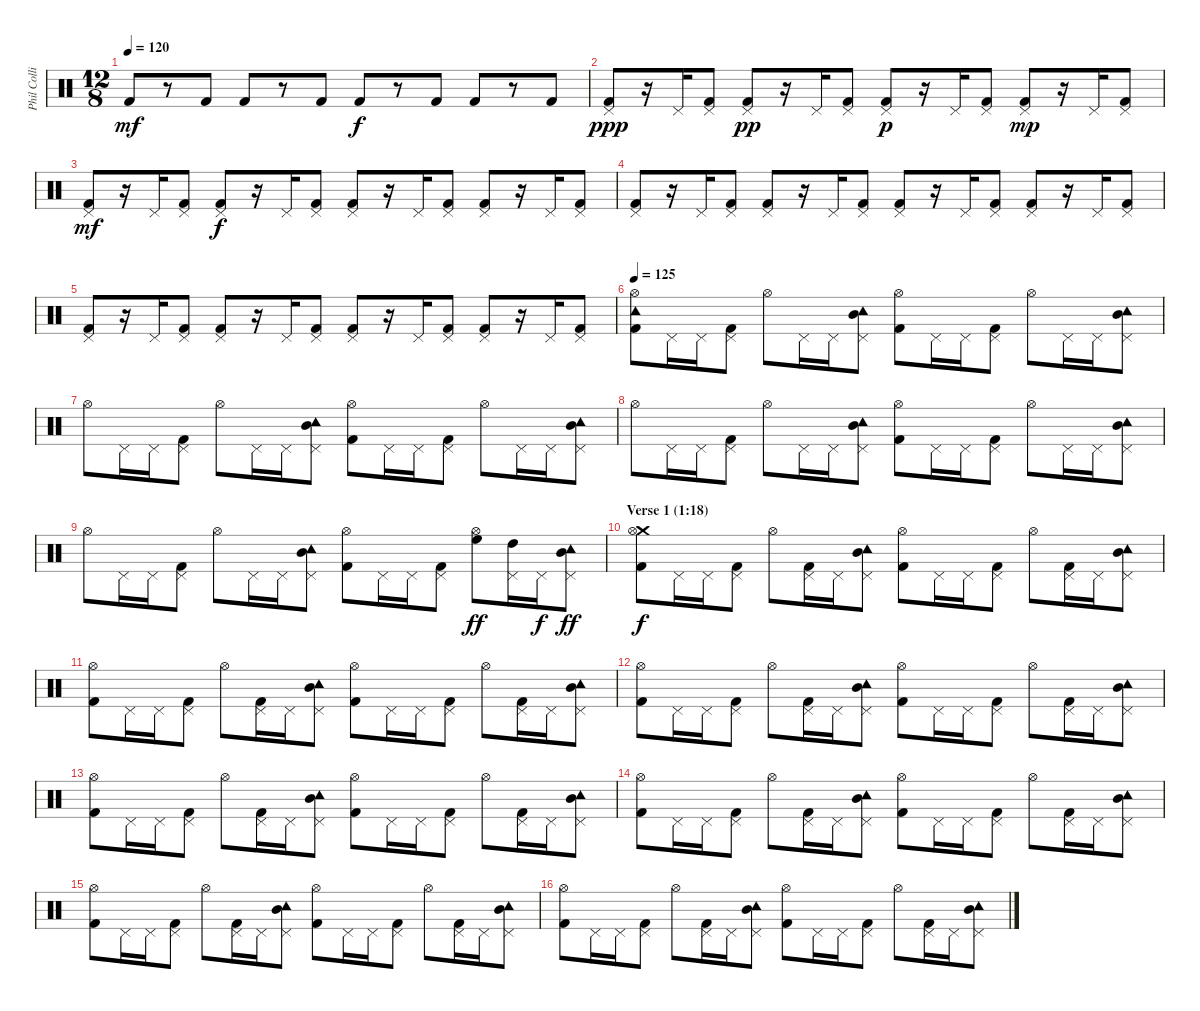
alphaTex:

\track ("Phil Collins (drums)" "Phil Colli") {instrument percussion}
\staff {score}
\articulation defaults
\ts (12 8)
\tempo 120
\clef neutral
\ks c "Kick (hit) 2".8{dy mf}
r.8 "Kick (hit) 2".8 "Kick (hit) 2".8 r.8 "Kick (hit) 2".8 "Kick (hit) 2".8{dy f} r.8 "Kick (hit) 2".8 "Kick (hit) 2".8 r.8 "Kick (hit) 2".8 |
("Pedal Hi-Hat (hit)" "Kick (hit) 2").8{dy ppp} r.16 "Pedal Hi-Hat (hit)".16 ("Pedal Hi-Hat (hit)" "Kick (hit) 2").8 ("Pedal Hi-Hat (hit)" "Kick (hit) 2").8{dy pp} r.16 "Pedal Hi-Hat (hit)".16 ("Pedal Hi-Hat (hit)" "Kick (hit) 2").8 ("Pedal Hi-Hat (hit)" "Kick (hit) 2").8{dy p} r.16 "Pedal Hi-Hat (hit)".16 ("Pedal Hi-Hat (hit)" "Kick (hit) 2").8 ("Pedal Hi-Hat (hit)" "Kick (hit) 2").8{dy mp} r.16 "Pedal Hi-Hat (hit)".16 ("Pedal Hi-Hat (hit)" "Kick (hit) 2").8 |
("Pedal Hi-Hat (hit)" "Kick (hit) 2").8{dy mf} r.16 "Pedal Hi-Hat (hit)".16 ("Pedal Hi-Hat (hit)" "Kick (hit) 2").8 ("Pedal Hi-Hat (hit)" "Kick (hit) 2").8{dy f} r.16 "Pedal Hi-Hat (hit)".16 ("Pedal Hi-Hat (hit)" "Kick (hit) 2").8 ("Pedal Hi-Hat (hit)" "Kick (hit) 2").8 r.16 "Pedal Hi-Hat (hit)".16 ("Pedal Hi-Hat (hit)" "Kick (hit) 2").8 ("Pedal Hi-Hat (hit)" "Kick (hit) 2").8 r.16 "Pedal Hi-Hat (hit)".16 ("Pedal Hi-Hat (hit)" "Kick (hit) 2").8 |
("Pedal Hi-Hat (hit)" "Kick (hit) 2").8 r.16 "Pedal Hi-Hat (hit)".16 ("Pedal Hi-Hat (hit)" "Kick (hit) 2").8 ("Pedal Hi-Hat (hit)" "Kick (hit) 2").8 r.16 "Pedal Hi-Hat (hit)".16 ("Pedal Hi-Hat (hit)" "Kick (hit) 2").8 ("Pedal Hi-Hat (hit)" "Kick (hit) 2").8 r.16 "Pedal Hi-Hat (hit)".16 ("Pedal Hi-Hat (hit)" "Kick (hit) 2").8 ("Pedal Hi-Hat (hit)" "Kick (hit) 2").8 r.16 "Pedal Hi-Hat (hit)".16 ("Pedal Hi-Hat (hit)" "Kick (hit) 2").8 |
("Pedal Hi-Hat (hit)" "Kick (hit) 2").8 r.16 "Pedal Hi-Hat (hit)".16 ("Pedal Hi-Hat (hit)" "Kick (hit) 2").8 ("Pedal Hi-Hat (hit)" "Kick (hit) 2").8 r.16 "Pedal Hi-Hat (hit)".16 ("Pedal Hi-Hat (hit)" "Kick (hit) 2").8 ("Pedal Hi-Hat (hit)" "Kick (hit) 2").8 r.16 "Pedal Hi-Hat (hit)".16 ("Pedal Hi-Hat (hit)" "Kick (hit) 2").8 ("Pedal Hi-Hat (hit)" "Kick (hit) 2").8 r.16 "Pedal Hi-Hat (hit)".16 ("Pedal Hi-Hat (hit)" "Kick (hit) 2").8 |
\tempo 125
("Tambourine (hit)" "Hi-Hat (open)" "Kick (hit) 2").8 "Pedal Hi-Hat (hit)".16 "Pedal Hi-Hat (hit)".16 ("Pedal Hi-Hat (hit)" "Kick (hit) 2").8 "Hi-Hat (open)".8 "Pedal Hi-Hat (hit)".16 "Pedal Hi-Hat (hit)".16 ("Tambourine (hit)" "Pedal Hi-Hat (hit)" "Mid Tom (hit)").8 ("Hi-Hat (open)" "Kick (hit) 2").8 "Pedal Hi-Hat (hit)".16 "Pedal Hi-Hat (hit)".16 ("Pedal Hi-Hat (hit)" "Kick (hit) 2").8 "Hi-Hat (open)".8 "Pedal Hi-Hat (hit)".16 "Pedal Hi-Hat (hit)".16 ("Tambourine (hit)" "Pedal Hi-Hat (hit)" "Mid Tom (hit)").8 |
"Hi-Hat (open)".8 "Pedal Hi-Hat (hit)".16 "Pedal Hi-Hat (hit)".16 ("Pedal Hi-Hat (hit)" "Kick (hit) 2").8 "Hi-Hat (open)".8 "Pedal Hi-Hat (hit)".16 "Pedal Hi-Hat (hit)".16 ("Tambourine (hit)" "Pedal Hi-Hat (hit)" "Mid Tom (hit)").8 ("Hi-Hat (open)" "Kick (hit) 2").8 "Pedal Hi-Hat (hit)".16 "Pedal Hi-Hat (hit)".16 ("Pedal Hi-Hat (hit)" "Kick (hit) 2").8 "Hi-Hat (open)".8 "Pedal Hi-Hat (hit)".16 "Pedal Hi-Hat (hit)".16 ("Tambourine (hit)" "Pedal Hi-Hat (hit)" "Mid Tom (hit)").8 |
"Hi-Hat (open)".8 "Pedal Hi-Hat (hit)".16 "Pedal Hi-Hat (hit)".16 ("Pedal Hi-Hat (hit)" "Kick (hit) 2").8 "Hi-Hat (open)".8 "Pedal Hi-Hat (hit)".16 "Pedal Hi-Hat (hit)".16 ("Tambourine (hit)" "Pedal Hi-Hat (hit)" "Mid Tom (hit)").8 ("Hi-Hat (open)" "Kick (hit) 2").8 "Pedal Hi-Hat (hit)".16 "Pedal Hi-Hat (hit)".16 ("Pedal Hi-Hat (hit)" "Kick (hit) 2").8 "Hi-Hat (open)".8 "Pedal Hi-Hat (hit)".16 "Pedal Hi-Hat (hit)".16 ("Tambourine (hit)" "Pedal Hi-Hat (hit)" "Mid Tom (hit)").8 |
"Hi-Hat (open)".8 "Pedal Hi-Hat (hit)".16 "Pedal Hi-Hat (hit)".16 ("Pedal Hi-Hat (hit)" "Kick (hit) 2").8 "Hi-Hat (open)".8 "Pedal Hi-Hat (hit)".16 "Pedal Hi-Hat (hit)".16 ("Tambourine (hit)" "Pedal Hi-Hat (hit)" "Mid Tom (hit)").8 ("Hi-Hat (open)" "Kick (hit) 2").8 "Pedal Hi-Hat (hit)".16 "Pedal Hi-Hat (hit)".16 ("Pedal Hi-Hat (hit)" "Kick (hit) 2").8 ("Hi-Hat (open)" "High Floor Tom (hit)").8{dy ff} ("Pedal Hi-Hat (hit)" "High Tom (hit)").16 "Pedal Hi-Hat (hit)".16{dy f} ("Tambourine (hit)" "Pedal Hi-Hat (hit)" "Mid Tom (hit)").8{dy ff} |
\section ("" "Verse 1 (1:18)")
("Crash medium (hit)" "Hi-Hat (open)" "Kick (hit) 2").8{dy f} "Pedal Hi-Hat (hit)".16 "Pedal Hi-Hat (hit)".16 ("Pedal Hi-Hat (hit)" "Kick (hit) 2").8 "Hi-Hat (open)".8 ("Pedal Hi-Hat (hit)" "Kick (hit) 2").16 "Pedal Hi-Hat (hit)".16 ("Tambourine (hit)" "Pedal Hi-Hat (hit)" "Mid Tom (hit)").8 ("Hi-Hat (open)" "Kick (hit) 2").8 "Pedal Hi-Hat (hit)".16 "Pedal Hi-Hat (hit)".16 ("Pedal Hi-Hat (hit)" "Kick (hit) 2").8 "Hi-Hat (open)".8 ("Pedal Hi-Hat (hit)" "Kick (hit) 2").16 "Pedal Hi-Hat (hit)".16 ("Tambourine (hit)" "Pedal Hi-Hat (hit)" "Mid Tom (hit)").8 |
("Hi-Hat (open)" "Kick (hit) 2").8 "Pedal Hi-Hat (hit)".16 "Pedal Hi-Hat (hit)".16 ("Pedal Hi-Hat (hit)" "Kick (hit) 2").8 "Hi-Hat (open)".8 ("Pedal Hi-Hat (hit)" "Kick (hit) 2").16 "Pedal Hi-Hat (hit)".16 ("Tambourine (hit)" "Pedal Hi-Hat (hit)" "Mid Tom (hit)").8 ("Hi-Hat (open)" "Kick (hit) 2").8 "Pedal Hi-Hat (hit)".16 "Pedal Hi-Hat (hit)".16 ("Pedal Hi-Hat (hit)" "Kick (hit) 2").8 "Hi-Hat (open)".8 ("Pedal Hi-Hat (hit)" "Kick (hit) 2").16 "Pedal Hi-Hat (hit)".16 ("Tambourine (hit)" "Pedal Hi-Hat (hit)" "Mid Tom (hit)").8 |
("Hi-Hat (open)" "Kick (hit) 2").8 "Pedal Hi-Hat (hit)".16 "Pedal Hi-Hat (hit)".16 ("Pedal Hi-Hat (hit)" "Kick (hit) 2").8 "Hi-Hat (open)".8 ("Pedal Hi-Hat (hit)" "Kick (hit) 2").16 "Pedal Hi-Hat (hit)".16 ("Tambourine (hit)" "Pedal Hi-Hat (hit)" "Mid Tom (hit)").8 ("Hi-Hat (open)" "Kick (hit) 2").8 "Pedal Hi-Hat (hit)".16 "Pedal Hi-Hat (hit)".16 ("Pedal Hi-Hat (hit)" "Kick (hit) 2").8 "Hi-Hat (open)".8 ("Pedal Hi-Hat (hit)" "Kick (hit) 2").16 "Pedal Hi-Hat (hit)".16 ("Tambourine (hit)" "Pedal Hi-Hat (hit)" "Mid Tom (hit)").8 |
("Hi-Hat (open)" "Kick (hit) 2").8 "Pedal Hi-Hat (hit)".16 "Pedal Hi-Hat (hit)".16 ("Pedal Hi-Hat (hit)" "Kick (hit) 2").8 "Hi-Hat (open)".8 ("Pedal Hi-Hat (hit)" "Kick (hit) 2").16 "Pedal Hi-Hat (hit)".16 ("Tambourine (hit)" "Pedal Hi-Hat (hit)" "Mid Tom (hit)").8 ("Hi-Hat (open)" "Kick (hit) 2").8 "Pedal Hi-Hat (hit)".16 "Pedal Hi-Hat (hit)".16 ("Pedal Hi-Hat (hit)" "Kick (hit) 2").8 "Hi-Hat (open)".8 ("Pedal Hi-Hat (hit)" "Kick (hit) 2").16 "Pedal Hi-Hat (hit)".16 ("Tambourine (hit)" "Pedal Hi-Hat (hit)" "Mid Tom (hit)").8 |
("Hi-Hat (open)" "Kick (hit) 2").8 "Pedal Hi-Hat (hit)".16 "Pedal Hi-Hat (hit)".16 ("Pedal Hi-Hat (hit)" "Kick (hit) 2").8 "Hi-Hat (open)".8 ("Pedal Hi-Hat (hit)" "Kick (hit) 2").16 "Pedal Hi-Hat (hit)".16 ("Tambourine (hit)" "Pedal Hi-Hat (hit)" "Mid Tom (hit)").8 ("Hi-Hat (open)" "Kick (hit) 2").8 "Pedal Hi-Hat (hit)".16 "Pedal Hi-Hat (hit)".16 ("Pedal Hi-Hat (hit)" "Kick (hit) 2").8 "Hi-Hat (open)".8 ("Pedal Hi-Hat (hit)" "Kick (hit) 2").16 "Pedal Hi-Hat (hit)".16 ("Tambourine (hit)" "Pedal Hi-Hat (hit)" "Mid Tom (hit)").8 |
("Hi-Hat (open)" "Kick (hit) 2").8 "Pedal Hi-Hat (hit)".16 "Pedal Hi-Hat (hit)".16 ("Pedal Hi-Hat (hit)" "Kick (hit) 2").8 "Hi-Hat (open)".8 ("Pedal Hi-Hat (hit)" "Kick (hit) 2").16 "Pedal Hi-Hat (hit)".16 ("Tambourine (hit)" "Pedal Hi-Hat (hit)" "Mid Tom (hit)").8 ("Hi-Hat (open)" "Kick (hit) 2").8 "Pedal Hi-Hat (hit)".16 "Pedal Hi-Hat (hit)".16 ("Pedal Hi-Hat (hit)" "Kick (hit) 2").8 "Hi-Hat (open)".8 ("Pedal Hi-Hat (hit)" "Kick (hit) 2").16 "Pedal Hi-Hat (hit)".16 ("Tambourine (hit)" "Pedal Hi-Hat (hit)" "Mid Tom (hit)").8 |
("Hi-Hat (open)" "Kick (hit) 2").8 "Pedal Hi-Hat (hit)".16 "Pedal Hi-Hat (hit)".16 ("Pedal Hi-Hat (hit)" "Kick (hit) 2").8 "Hi-Hat (open)".8 ("Pedal Hi-Hat (hit)" "Kick (hit) 2").16 "Pedal Hi-Hat (hit)".16 ("Tambourine (hit)" "Pedal Hi-Hat (hit)" "Mid Tom (hit)").8 ("Hi-Hat (open)" "Kick (hit) 2").8 "Pedal Hi-Hat (hit)".16 "Pedal Hi-Hat (hit)".16 ("Pedal Hi-Hat (hit)" "Kick (hit) 2").8 "Hi-Hat (open)".8 ("Pedal Hi-Hat (hit)" "Kick (hit) 2").16 "Pedal Hi-Hat (hit)".16 ("Tambourine (hit)" "Pedal Hi-Hat (hit)" "Mid Tom (hit)").8
